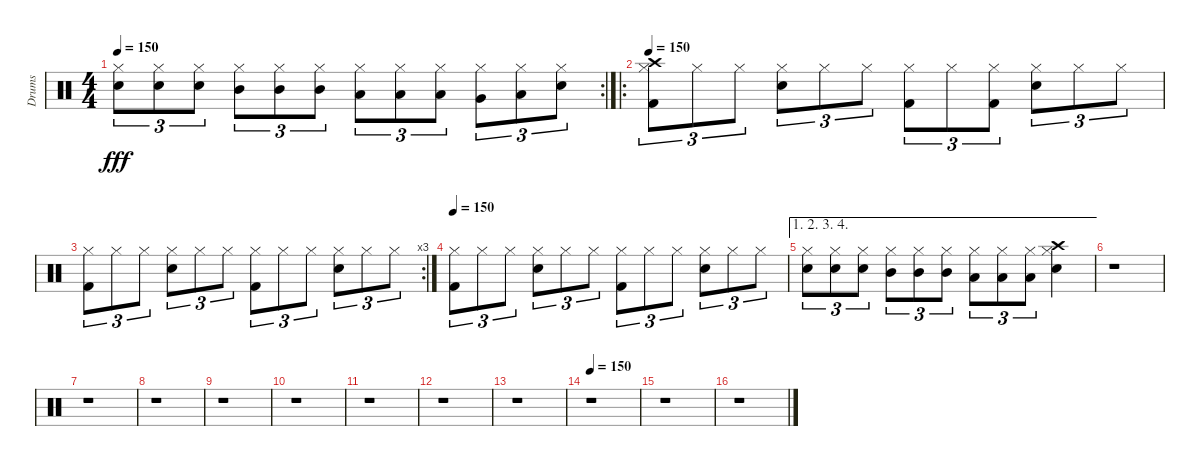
\track ("Drums" "Drums") {instrument percussion}
\staff {score}
\articulation defaults
\rc 2
\ts (4 4)
\tempo 150
\clef neutral
\ks c
("Snare (hit) 2" "Hi-Hat (closed)").8{tu (3 2) dy fff} ("Snare (hit) 2" "Hi-Hat (closed)").8{tu (3 2)} ("Snare (hit) 2" "Hi-Hat (closed)").8{tu (3 2)} ("Mid Tom (hit)" "Hi-Hat (closed)").8{tu (3 2)} ("Mid Tom (hit)" "Hi-Hat (closed)").8{tu (3 2)} ("Mid Tom (hit)" "Hi-Hat (closed)").8{tu (3 2)} ("Low Tom (hit)" "Hi-Hat (closed)").8{tu (3 2)} ("Low Tom (hit)" "Hi-Hat (closed)").8{tu (3 2)} ("Low Tom (hit)" "Hi-Hat (closed)").8{tu (3 2)} ("Very Low Tom (hit)" "Hi-Hat (closed)").8{tu (3 2)} ("Low Floor Tom (hit)" "Hi-Hat (closed)").8{tu (3 2)} ("Electric Snare (hit)" "Hi-Hat (closed)").8{tu (3 2)} |
\ro
\tempo 150
("Hi-Hat (closed)" "Kick (hit) 2" "Crash high (hit)").8{tu (3 2)} "Hi-Hat (closed)".8{tu (3 2)} "Hi-Hat (closed)".8{tu (3 2)} ("Hi-Hat (closed)" "Snare (hit) 2").8{tu (3 2)} "Hi-Hat (closed)".8{tu (3 2)} "Hi-Hat (closed)".8{tu (3 2)} ("Hi-Hat (closed)" "Kick (hit) 2").8{tu (3 2)} "Hi-Hat (closed)".8{tu (3 2)} ("Hi-Hat (closed)" "Kick (hit) 2").8{tu (3 2)} ("Hi-Hat (closed)" "Snare (hit) 2").8{tu (3 2)} "Hi-Hat (closed)".8{tu (3 2)} "Hi-Hat (closed)".8{tu (3 2)} |
\rc 3
("Hi-Hat (closed)" "Kick (hit) 2").8{tu (3 2)} "Hi-Hat (closed)".8{tu (3 2)} "Hi-Hat (closed)".8{tu (3 2)} ("Hi-Hat (closed)" "Snare (hit) 2").8{tu (3 2)} "Hi-Hat (closed)".8{tu (3 2)} "Hi-Hat (closed)".8{tu (3 2)} ("Hi-Hat (closed)" "Kick (hit) 2").8{tu (3 2)} "Hi-Hat (closed)".8{tu (3 2)} "Hi-Hat (closed)".8{tu (3 2)} ("Hi-Hat (closed)" "Snare (hit) 2").8{tu (3 2)} "Hi-Hat (closed)".8{tu (3 2)} "Hi-Hat (closed)".8{tu (3 2)} |
\tempo 150
("Hi-Hat (closed)" "Kick (hit) 2").8{tu (3 2)} "Hi-Hat (closed)".8{tu (3 2)} "Hi-Hat (closed)".8{tu (3 2)} ("Hi-Hat (closed)" "Snare (hit) 2").8{tu (3 2)} "Hi-Hat (closed)".8{tu (3 2)} "Hi-Hat (closed)".8{tu (3 2)} ("Hi-Hat (closed)" "Kick (hit) 2").8{tu (3 2)} "Hi-Hat (closed)".8{tu (3 2)} "Hi-Hat (closed)".8{tu (3 2)} ("Hi-Hat (closed)" "Snare (hit) 2").8{tu (3 2)} "Hi-Hat (closed)".8{tu (3 2)} "Hi-Hat (closed)".8{tu (3 2)} |
\ae (1 2 3 4)
("Snare (hit) 2" "Hi-Hat (closed)").8{tu (3 2)} ("Snare (hit) 2" "Hi-Hat (closed)").8{tu (3 2)} ("Snare (hit) 2" "Hi-Hat (closed)").8{tu (3 2)} ("Mid Tom (hit)" "Hi-Hat (closed)").8{tu (3 2)} ("Mid Tom (hit)" "Hi-Hat (closed)").8{tu (3 2)} ("Mid Tom (hit)" "Hi-Hat (closed)").8{tu (3 2)} ("Low Tom (hit)" "Hi-Hat (closed)").8{tu (3 2)} ("Low Tom (hit)" "Hi-Hat (closed)").8{tu (3 2)} ("Low Tom (hit)" "Hi-Hat (closed)").8{tu (3 2)} ("Hi-Hat (closed)" "Snare (hit) 2" "Crash high (hit)").4 |
r.1 |
r.1 |
r.1 |
r.1 |
r.1 |
r.1 |
r.1 |
r.1 |
\tempo 150
r.1 |
r.1 |
r.1
